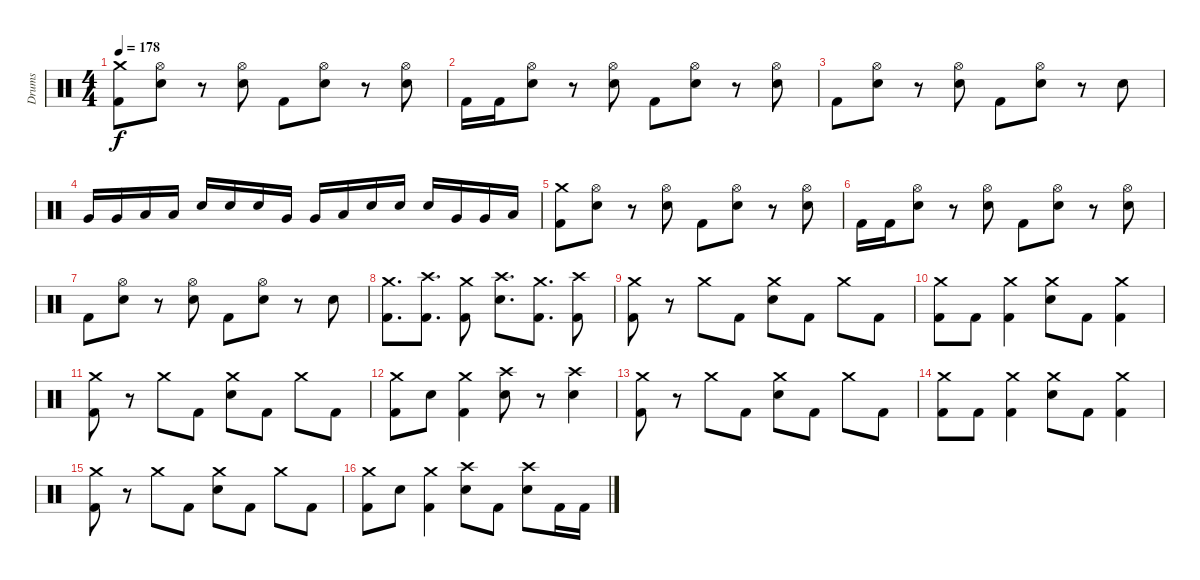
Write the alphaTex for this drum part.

\track ("Drums" "Drums") {instrument percussion}
\staff
\articulation defaults
\ts (4 4)
\tempo 178
\clef neutral
\ks c
("Crash medium (hit)" "Kick (hit) 2").8{dy f} ("Hi-Hat (open)" "Electric Snare (hit)").8 r.8 ("Hi-Hat (open)" "Electric Snare (hit)").8 "Kick (hit) 2".8 ("Hi-Hat (open)" "Electric Snare (hit)").8 r.8 ("Hi-Hat (open)" "Electric Snare (hit)").8 |
"Kick (hit) 2".16 "Kick (hit) 2".16 ("Hi-Hat (open)" "Electric Snare (hit)").8 r.8 ("Hi-Hat (open)" "Electric Snare (hit)").8 "Kick (hit) 2".8 ("Hi-Hat (open)" "Electric Snare (hit)").8 r.8 ("Hi-Hat (open)" "Electric Snare (hit)").8 |
"Kick (hit) 2".8 ("Hi-Hat (open)" "Electric Snare (hit)").8 r.8 ("Hi-Hat (open)" "Electric Snare (hit)").8 "Kick (hit) 2".8 ("Hi-Hat (open)" "Electric Snare (hit)").8 r.8 "Electric Snare (hit)".8 |
"Very Low Tom (hit)".16 "Very Low Tom (hit)".16 "Low Floor Tom (hit)".16 "Low Floor Tom (hit)".16 "Electric Snare (hit)".16 "Electric Snare (hit)".16 "Electric Snare (hit)".16 "Very Low Tom (hit)".16 "Very Low Tom (hit)".16 "Low Floor Tom (hit)".16 "Electric Snare (hit)".16 "Electric Snare (hit)".16 "Electric Snare (hit)".16 "Very Low Tom (hit)".16 "Very Low Tom (hit)".16 "Low Floor Tom (hit)".16 |
("Crash medium (hit)" "Kick (hit) 2").8 ("Hi-Hat (open)" "Electric Snare (hit)").8 r.8 ("Hi-Hat (open)" "Electric Snare (hit)").8 "Kick (hit) 2".8 ("Hi-Hat (open)" "Electric Snare (hit)").8 r.8 ("Hi-Hat (open)" "Electric Snare (hit)").8 |
"Kick (hit) 2".16 "Kick (hit) 2".16 ("Hi-Hat (open)" "Electric Snare (hit)").8 r.8 ("Hi-Hat (open)" "Electric Snare (hit)").8 "Kick (hit) 2".8 ("Hi-Hat (open)" "Electric Snare (hit)").8 r.8 ("Hi-Hat (open)" "Electric Snare (hit)").8 |
"Kick (hit) 2".8 ("Hi-Hat (open)" "Electric Snare (hit)").8 r.8 ("Hi-Hat (open)" "Electric Snare (hit)").8 "Kick (hit) 2".8 ("Hi-Hat (open)" "Electric Snare (hit)").8 r.8 "Electric Snare (hit)".8 |
("Crash medium (hit)" "Kick (hit) 2").8{d} ("Crash high (hit)" "Kick (hit) 2").8{d} ("Crash medium (hit)" "Kick (hit) 2").8 ("Crash high (hit)" "Electric Snare (hit)").8{d} ("Crash medium (hit)" "Kick (hit) 2").8{d} ("Crash high (hit)" "Kick (hit) 2").8 |
("Crash medium (hit)" "Kick (hit) 2").8 r.8 "Crash medium (hit)".8 "Kick (hit) 2".8 ("Crash medium (hit)" "Electric Snare (hit)").8 "Kick (hit) 2".8 "Crash medium (hit)".8 "Kick (hit) 2".8 |
("Crash medium (hit)" "Kick (hit) 2").8 "Kick (hit) 2".8 ("Crash medium (hit)" "Kick (hit) 2").4 ("Crash medium (hit)" "Electric Snare (hit)").8 "Kick (hit) 2".8 ("Crash medium (hit)" "Kick (hit) 2").4 |
("Crash medium (hit)" "Kick (hit) 2").8 r.8 "Crash medium (hit)".8 "Kick (hit) 2".8 ("Crash medium (hit)" "Electric Snare (hit)").8 "Kick (hit) 2".8 "Crash medium (hit)".8 "Kick (hit) 2".8 |
("Crash medium (hit)" "Kick (hit) 2").8 "Electric Snare (hit)".8 ("Crash medium (hit)" "Kick (hit) 2").4 ("Crash high (hit)" "Electric Snare (hit)").8 r.8 ("Crash high (hit)" "Electric Snare (hit)").4 |
("Crash medium (hit)" "Kick (hit) 2").8 r.8 "Crash medium (hit)".8 "Kick (hit) 2".8 ("Crash medium (hit)" "Electric Snare (hit)").8 "Kick (hit) 2".8 "Crash medium (hit)".8 "Kick (hit) 2".8 |
("Crash medium (hit)" "Kick (hit) 2").8 "Kick (hit) 2".8 ("Crash medium (hit)" "Kick (hit) 2").4 ("Crash medium (hit)" "Electric Snare (hit)").8 "Kick (hit) 2".8 ("Crash medium (hit)" "Kick (hit) 2").4 |
("Crash medium (hit)" "Kick (hit) 2").8 r.8 "Crash medium (hit)".8 "Kick (hit) 2".8 ("Crash medium (hit)" "Electric Snare (hit)").8 "Kick (hit) 2".8 "Crash medium (hit)".8 "Kick (hit) 2".8 |
("Crash medium (hit)" "Kick (hit) 2").8 "Electric Snare (hit)".8 ("Crash medium (hit)" "Kick (hit) 2").4 ("Crash high (hit)" "Electric Snare (hit)").8 "Kick (hit) 2".8 ("Crash high (hit)" "Electric Snare (hit)").8 "Kick (hit) 2".16 "Kick (hit) 2".16
